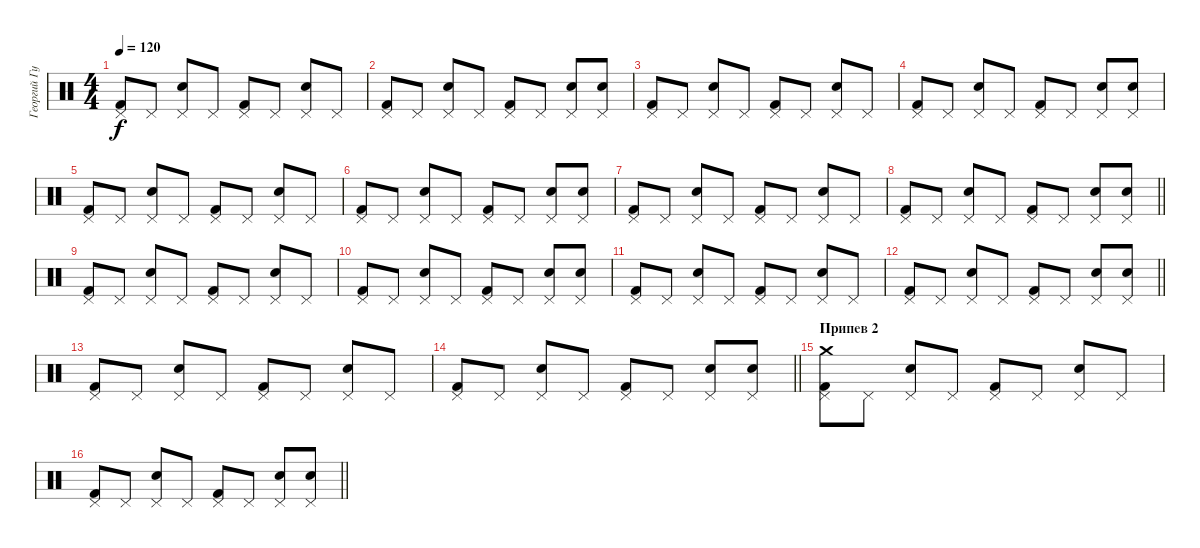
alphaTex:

\track ("Георгий Гурьянов" "Георгий Гу") {instrument percussion}
\staff {score}
\articulation defaults
\ts (4 4)
\tempo 120
\clef neutral
\ks c
("Pedal Hi-Hat (hit)" "Kick (hit) 2").8{dy f} "Pedal Hi-Hat (hit)".8 ("Pedal Hi-Hat (hit)" "Snare (hit) 2").8 "Pedal Hi-Hat (hit)".8 ("Pedal Hi-Hat (hit)" "Kick (hit) 2").8 "Pedal Hi-Hat (hit)".8 ("Pedal Hi-Hat (hit)" "Snare (hit) 2").8 "Pedal Hi-Hat (hit)".8 |
("Pedal Hi-Hat (hit)" "Kick (hit) 2").8 "Pedal Hi-Hat (hit)".8 ("Pedal Hi-Hat (hit)" "Snare (hit) 2").8 "Pedal Hi-Hat (hit)".8 ("Pedal Hi-Hat (hit)" "Kick (hit) 2").8 "Pedal Hi-Hat (hit)".8 ("Pedal Hi-Hat (hit)" "Snare (hit) 2").8 ("Pedal Hi-Hat (hit)" "Snare (hit) 2").8 |
("Pedal Hi-Hat (hit)" "Kick (hit) 2").8 "Pedal Hi-Hat (hit)".8 ("Pedal Hi-Hat (hit)" "Snare (hit) 2").8 "Pedal Hi-Hat (hit)".8 ("Pedal Hi-Hat (hit)" "Kick (hit) 2").8 "Pedal Hi-Hat (hit)".8 ("Pedal Hi-Hat (hit)" "Snare (hit) 2").8 "Pedal Hi-Hat (hit)".8 |
("Pedal Hi-Hat (hit)" "Kick (hit) 2").8 "Pedal Hi-Hat (hit)".8 ("Pedal Hi-Hat (hit)" "Snare (hit) 2").8 "Pedal Hi-Hat (hit)".8 ("Pedal Hi-Hat (hit)" "Kick (hit) 2").8 "Pedal Hi-Hat (hit)".8 ("Pedal Hi-Hat (hit)" "Snare (hit) 2").8 ("Pedal Hi-Hat (hit)" "Snare (hit) 2").8 |
("Pedal Hi-Hat (hit)" "Kick (hit) 2").8 "Pedal Hi-Hat (hit)".8 ("Pedal Hi-Hat (hit)" "Snare (hit) 2").8 "Pedal Hi-Hat (hit)".8 ("Pedal Hi-Hat (hit)" "Kick (hit) 2").8 "Pedal Hi-Hat (hit)".8 ("Pedal Hi-Hat (hit)" "Snare (hit) 2").8 "Pedal Hi-Hat (hit)".8 |
("Pedal Hi-Hat (hit)" "Kick (hit) 2").8 "Pedal Hi-Hat (hit)".8 ("Pedal Hi-Hat (hit)" "Snare (hit) 2").8 "Pedal Hi-Hat (hit)".8 ("Pedal Hi-Hat (hit)" "Kick (hit) 2").8 "Pedal Hi-Hat (hit)".8 ("Pedal Hi-Hat (hit)" "Snare (hit) 2").8 ("Pedal Hi-Hat (hit)" "Snare (hit) 2").8 |
("Pedal Hi-Hat (hit)" "Kick (hit) 2").8 "Pedal Hi-Hat (hit)".8 ("Pedal Hi-Hat (hit)" "Snare (hit) 2").8 "Pedal Hi-Hat (hit)".8 ("Pedal Hi-Hat (hit)" "Kick (hit) 2").8 "Pedal Hi-Hat (hit)".8 ("Pedal Hi-Hat (hit)" "Snare (hit) 2").8 "Pedal Hi-Hat (hit)".8 |
\barLineRight lightlight
("Pedal Hi-Hat (hit)" "Kick (hit) 2").8 "Pedal Hi-Hat (hit)".8 ("Pedal Hi-Hat (hit)" "Snare (hit) 2").8 "Pedal Hi-Hat (hit)".8 ("Pedal Hi-Hat (hit)" "Kick (hit) 2").8 "Pedal Hi-Hat (hit)".8 ("Pedal Hi-Hat (hit)" "Snare (hit) 2").8 ("Pedal Hi-Hat (hit)" "Snare (hit) 2").8 |
("Pedal Hi-Hat (hit)" "Kick (hit) 2").8 "Pedal Hi-Hat (hit)".8 ("Pedal Hi-Hat (hit)" "Snare (hit) 2").8 "Pedal Hi-Hat (hit)".8 ("Pedal Hi-Hat (hit)" "Kick (hit) 2").8 "Pedal Hi-Hat (hit)".8 ("Pedal Hi-Hat (hit)" "Snare (hit) 2").8 "Pedal Hi-Hat (hit)".8 |
("Pedal Hi-Hat (hit)" "Kick (hit) 2").8 "Pedal Hi-Hat (hit)".8 ("Pedal Hi-Hat (hit)" "Snare (hit) 2").8 "Pedal Hi-Hat (hit)".8 ("Pedal Hi-Hat (hit)" "Kick (hit) 2").8 "Pedal Hi-Hat (hit)".8 ("Pedal Hi-Hat (hit)" "Snare (hit) 2").8 ("Pedal Hi-Hat (hit)" "Snare (hit) 2").8 |
("Pedal Hi-Hat (hit)" "Kick (hit) 2").8 "Pedal Hi-Hat (hit)".8 ("Pedal Hi-Hat (hit)" "Snare (hit) 2").8 "Pedal Hi-Hat (hit)".8 ("Pedal Hi-Hat (hit)" "Kick (hit) 2").8 "Pedal Hi-Hat (hit)".8 ("Pedal Hi-Hat (hit)" "Snare (hit) 2").8 "Pedal Hi-Hat (hit)".8 |
\barLineRight lightlight
("Pedal Hi-Hat (hit)" "Kick (hit) 2").8 "Pedal Hi-Hat (hit)".8 ("Pedal Hi-Hat (hit)" "Snare (hit) 2").8 "Pedal Hi-Hat (hit)".8 ("Pedal Hi-Hat (hit)" "Kick (hit) 2").8 "Pedal Hi-Hat (hit)".8 ("Pedal Hi-Hat (hit)" "Snare (hit) 2").8 ("Pedal Hi-Hat (hit)" "Snare (hit) 2").8 |
("Pedal Hi-Hat (hit)" "Kick (hit) 2").8 "Pedal Hi-Hat (hit)".8 ("Pedal Hi-Hat (hit)" "Snare (hit) 2").8 "Pedal Hi-Hat (hit)".8 ("Pedal Hi-Hat (hit)" "Kick (hit) 2").8 "Pedal Hi-Hat (hit)".8 ("Pedal Hi-Hat (hit)" "Snare (hit) 2").8 "Pedal Hi-Hat (hit)".8 |
\barLineRight lightlight
("Pedal Hi-Hat (hit)" "Kick (hit) 2").8 "Pedal Hi-Hat (hit)".8 ("Pedal Hi-Hat (hit)" "Snare (hit) 2").8 "Pedal Hi-Hat (hit)".8 ("Pedal Hi-Hat (hit)" "Kick (hit) 2").8 "Pedal Hi-Hat (hit)".8 ("Pedal Hi-Hat (hit)" "Snare (hit) 2").8 ("Pedal Hi-Hat (hit)" "Snare (hit) 2").8 |
\section ("" "Припев 2")
("Pedal Hi-Hat (hit)" "Kick (hit) 2" "Crash medium (hit)").8 "Pedal Hi-Hat (hit)".8 ("Pedal Hi-Hat (hit)" "Snare (hit) 2").8 "Pedal Hi-Hat (hit)".8 ("Pedal Hi-Hat (hit)" "Kick (hit) 2").8 "Pedal Hi-Hat (hit)".8 ("Pedal Hi-Hat (hit)" "Snare (hit) 2").8 "Pedal Hi-Hat (hit)".8 |
\barLineRight lightlight
("Pedal Hi-Hat (hit)" "Kick (hit) 2").8 "Pedal Hi-Hat (hit)".8 ("Pedal Hi-Hat (hit)" "Snare (hit) 2").8 "Pedal Hi-Hat (hit)".8 ("Pedal Hi-Hat (hit)" "Kick (hit) 2").8 "Pedal Hi-Hat (hit)".8 ("Pedal Hi-Hat (hit)" "Snare (hit) 2").8 ("Pedal Hi-Hat (hit)" "Snare (hit) 2").8
